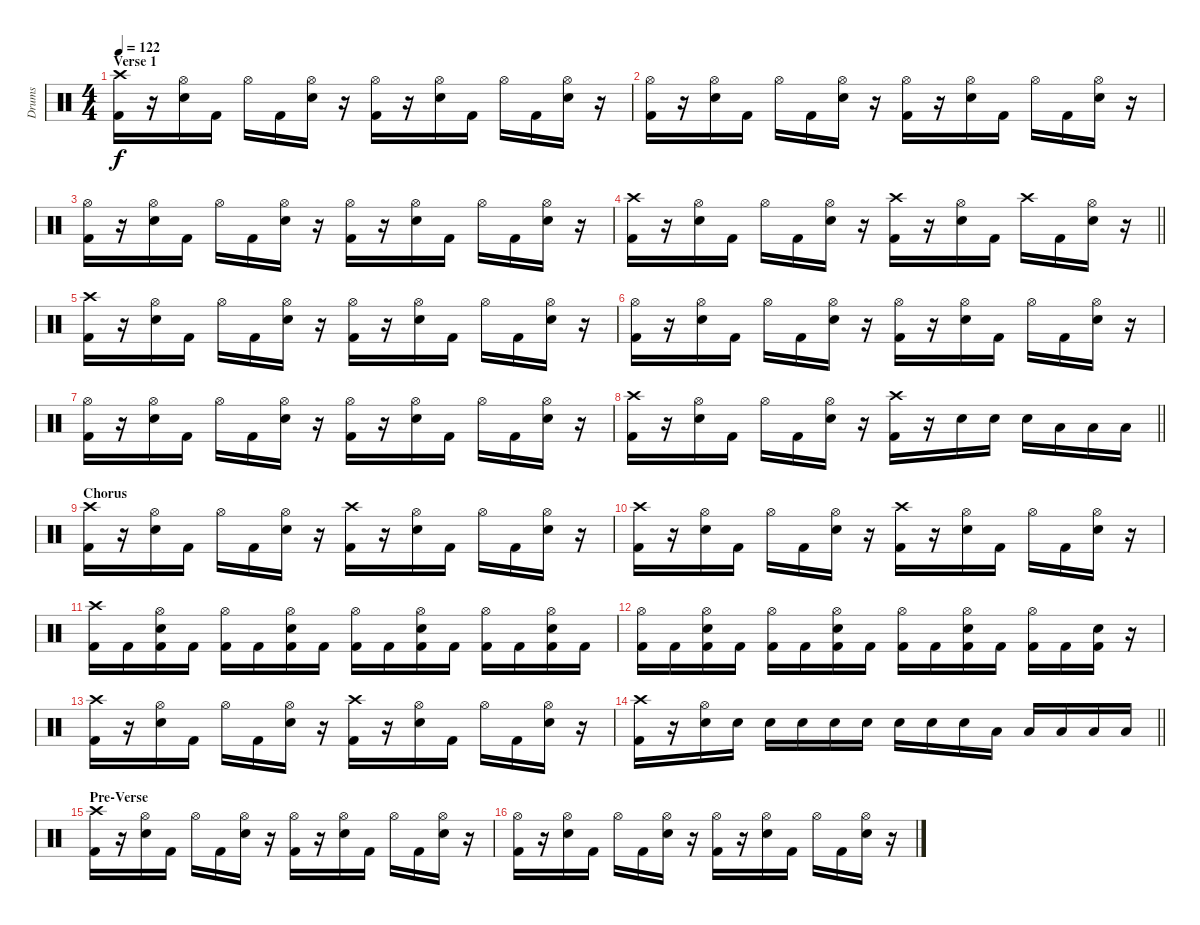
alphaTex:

\track ("Drums" "Drums") {instrument percussion}
\staff {score}
\articulation defaults
\ts (4 4)
\section ("" "Verse 1")
\tempo 122
\clef neutral
\ks c
("Crash high (hit)" "Kick (hit) 2").16{dy f} r.16 ("Hi-Hat (open)" "Snare (hit) 2").16 "Kick (hit) 2".16 "Hi-Hat (open)".16 "Kick (hit) 2".16 ("Hi-Hat (open)" "Snare (hit) 2").16 r.16 ("Hi-Hat (open)" "Kick (hit) 2").16 r.16 ("Hi-Hat (open)" "Snare (hit) 2").16 "Kick (hit) 2".16 "Hi-Hat (open)".16 "Kick (hit) 2".16 ("Hi-Hat (open)" "Snare (hit) 2").16 r.16 |
("Hi-Hat (open)" "Kick (hit) 2").16 r.16 ("Hi-Hat (open)" "Snare (hit) 2").16 "Kick (hit) 2".16 "Hi-Hat (open)".16 "Kick (hit) 2".16 ("Hi-Hat (open)" "Snare (hit) 2").16 r.16 ("Hi-Hat (open)" "Kick (hit) 2").16 r.16 ("Hi-Hat (open)" "Snare (hit) 2").16 "Kick (hit) 2".16 "Hi-Hat (open)".16 "Kick (hit) 2".16 ("Hi-Hat (open)" "Snare (hit) 2").16 r.16 |
("Hi-Hat (open)" "Kick (hit) 2").16 r.16 ("Hi-Hat (open)" "Snare (hit) 2").16 "Kick (hit) 2".16 "Hi-Hat (open)".16 "Kick (hit) 2".16 ("Hi-Hat (open)" "Snare (hit) 2").16 r.16 ("Hi-Hat (open)" "Kick (hit) 2").16 r.16 ("Hi-Hat (open)" "Snare (hit) 2").16 "Kick (hit) 2".16 "Hi-Hat (open)".16 "Kick (hit) 2".16 ("Hi-Hat (open)" "Snare (hit) 2").16 r.16 |
\barLineRight lightlight
("Crash high (hit)" "Kick (hit) 2").16 r.16 ("Hi-Hat (open)" "Snare (hit) 2").16 "Kick (hit) 2".16 "Hi-Hat (open)".16 "Kick (hit) 2".16 ("Hi-Hat (open)" "Snare (hit) 2").16 r.16 ("Crash high (hit)" "Kick (hit) 2").16 r.16 ("Hi-Hat (open)" "Snare (hit) 2").16 "Kick (hit) 2".16 "Crash high (hit)".16 "Kick (hit) 2".16 ("Hi-Hat (open)" "Snare (hit) 2").16 r.16 |
("Crash high (hit)" "Kick (hit) 2").16 r.16 ("Hi-Hat (open)" "Snare (hit) 2").16 "Kick (hit) 2".16 "Hi-Hat (open)".16 "Kick (hit) 2".16 ("Hi-Hat (open)" "Snare (hit) 2").16 r.16 ("Hi-Hat (open)" "Kick (hit) 2").16 r.16 ("Hi-Hat (open)" "Snare (hit) 2").16 "Kick (hit) 2".16 "Hi-Hat (open)".16 "Kick (hit) 2".16 ("Hi-Hat (open)" "Snare (hit) 2").16 r.16 |
("Hi-Hat (open)" "Kick (hit) 2").16 r.16 ("Hi-Hat (open)" "Snare (hit) 2").16 "Kick (hit) 2".16 "Hi-Hat (open)".16 "Kick (hit) 2".16 ("Hi-Hat (open)" "Snare (hit) 2").16 r.16 ("Hi-Hat (open)" "Kick (hit) 2").16 r.16 ("Hi-Hat (open)" "Snare (hit) 2").16 "Kick (hit) 2".16 "Hi-Hat (open)".16 "Kick (hit) 2".16 ("Hi-Hat (open)" "Snare (hit) 2").16 r.16 |
("Hi-Hat (open)" "Kick (hit) 2").16 r.16 ("Hi-Hat (open)" "Snare (hit) 2").16 "Kick (hit) 2".16 "Hi-Hat (open)".16 "Kick (hit) 2".16 ("Hi-Hat (open)" "Snare (hit) 2").16 r.16 ("Hi-Hat (open)" "Kick (hit) 2").16 r.16 ("Hi-Hat (open)" "Snare (hit) 2").16 "Kick (hit) 2".16 "Hi-Hat (open)".16 "Kick (hit) 2".16 ("Hi-Hat (open)" "Snare (hit) 2").16 r.16 |
\barLineRight lightlight
("Crash high (hit)" "Kick (hit) 2").16 r.16 ("Hi-Hat (open)" "Snare (hit) 2").16 "Kick (hit) 2".16 "Hi-Hat (open)".16 "Kick (hit) 2".16 ("Hi-Hat (open)" "Snare (hit) 2").16 r.16 ("Crash high (hit)" "Kick (hit) 2").16 r.16 "Snare (hit) 2".16 "Snare (hit) 2".16 "Snare (hit) 2".16 "Low Tom (hit)".16 "Low Tom (hit)".16 "Low Tom (hit)".16 |
\section ("" "Chorus")
("Crash high (hit)" "Kick (hit) 2").16 r.16 ("Hi-Hat (open)" "Snare (hit) 2").16 "Kick (hit) 2".16 "Hi-Hat (open)".16 "Kick (hit) 2".16 ("Hi-Hat (open)" "Snare (hit) 2").16 r.16 ("Crash high (hit)" "Kick (hit) 2").16 r.16 ("Hi-Hat (open)" "Snare (hit) 2").16 "Kick (hit) 2".16 "Hi-Hat (open)".16 "Kick (hit) 2".16 ("Hi-Hat (open)" "Snare (hit) 2").16 r.16 |
("Crash high (hit)" "Kick (hit) 2").16 r.16 ("Hi-Hat (open)" "Snare (hit) 2").16 "Kick (hit) 2".16 "Hi-Hat (open)".16 "Kick (hit) 2".16 ("Hi-Hat (open)" "Snare (hit) 2").16 r.16 ("Crash high (hit)" "Kick (hit) 2").16 r.16 ("Hi-Hat (open)" "Snare (hit) 2").16 "Kick (hit) 2".16 "Hi-Hat (open)".16 "Kick (hit) 2".16 ("Hi-Hat (open)" "Snare (hit) 2").16 r.16 |
("Crash high (hit)" "Kick (hit) 2").16 "Kick (hit) 2".16 ("Hi-Hat (open)" "Snare (hit) 2" "Kick (hit) 2").16 "Kick (hit) 2".16 ("Hi-Hat (open)" "Kick (hit) 2").16 "Kick (hit) 2".16 ("Hi-Hat (open)" "Snare (hit) 2" "Kick (hit) 2").16 "Kick (hit) 2".16 ("Hi-Hat (open)" "Kick (hit) 2").16 "Kick (hit) 2".16 ("Hi-Hat (open)" "Snare (hit) 2" "Kick (hit) 2").16 "Kick (hit) 2".16 ("Hi-Hat (open)" "Kick (hit) 2").16 "Kick (hit) 2".16 ("Hi-Hat (open)" "Snare (hit) 2" "Kick (hit) 2").16 "Kick (hit) 2".16 |
("Hi-Hat (open)" "Kick (hit) 2").16 "Kick (hit) 2".16 ("Hi-Hat (open)" "Snare (hit) 2" "Kick (hit) 2").16 "Kick (hit) 2".16 ("Hi-Hat (open)" "Kick (hit) 2").16 "Kick (hit) 2".16 ("Hi-Hat (open)" "Snare (hit) 2" "Kick (hit) 2").16 "Kick (hit) 2".16 ("Hi-Hat (open)" "Kick (hit) 2").16 "Kick (hit) 2".16 ("Hi-Hat (open)" "Snare (hit) 2" "Kick (hit) 2").16 "Kick (hit) 2".16 ("Hi-Hat (open)" "Kick (hit) 2").16 "Kick (hit) 2".16 ("Snare (hit) 2" "Kick (hit) 2").16 r.16 |
("Crash high (hit)" "Kick (hit) 2").16 r.16 ("Hi-Hat (open)" "Snare (hit) 2").16 "Kick (hit) 2".16 "Hi-Hat (open)".16 "Kick (hit) 2".16 ("Hi-Hat (open)" "Snare (hit) 2").16 r.16 ("Crash high (hit)" "Kick (hit) 2").16 r.16 ("Hi-Hat (open)" "Snare (hit) 2").16 "Kick (hit) 2".16 "Hi-Hat (open)".16 "Kick (hit) 2".16 ("Hi-Hat (open)" "Snare (hit) 2").16 r.16 |
\barLineRight lightlight
("Crash high (hit)" "Kick (hit) 2").16 r.16 ("Hi-Hat (open)" "Snare (hit) 2").16 "Snare (hit) 2".16 "Snare (hit) 2".16 "Snare (hit) 2".16 "Snare (hit) 2".16 "Snare (hit) 2".16 "Snare (hit) 2".16 "Snare (hit) 2".16 "Snare (hit) 2".16 "Low Tom (hit)".16 "Low Tom (hit)".16 "Low Tom (hit)".16 "Low Tom (hit)".16 "Low Tom (hit)".16 |
\section ("" "Pre-Verse")
("Crash high (hit)" "Kick (hit) 2").16 r.16 ("Hi-Hat (open)" "Snare (hit) 2").16 "Kick (hit) 2".16 "Hi-Hat (open)".16 "Kick (hit) 2".16 ("Hi-Hat (open)" "Snare (hit) 2").16 r.16 ("Hi-Hat (open)" "Kick (hit) 2").16 r.16 ("Hi-Hat (open)" "Snare (hit) 2").16 "Kick (hit) 2".16 "Hi-Hat (open)".16 "Kick (hit) 2".16 ("Hi-Hat (open)" "Snare (hit) 2").16 r.16 |
("Hi-Hat (open)" "Kick (hit) 2").16 r.16 ("Hi-Hat (open)" "Snare (hit) 2").16 "Kick (hit) 2".16 "Hi-Hat (open)".16 "Kick (hit) 2".16 ("Hi-Hat (open)" "Snare (hit) 2").16 r.16 ("Hi-Hat (open)" "Kick (hit) 2").16 r.16 ("Hi-Hat (open)" "Snare (hit) 2").16 "Kick (hit) 2".16 "Hi-Hat (open)".16 "Kick (hit) 2".16 ("Hi-Hat (open)" "Snare (hit) 2").16 r.16
